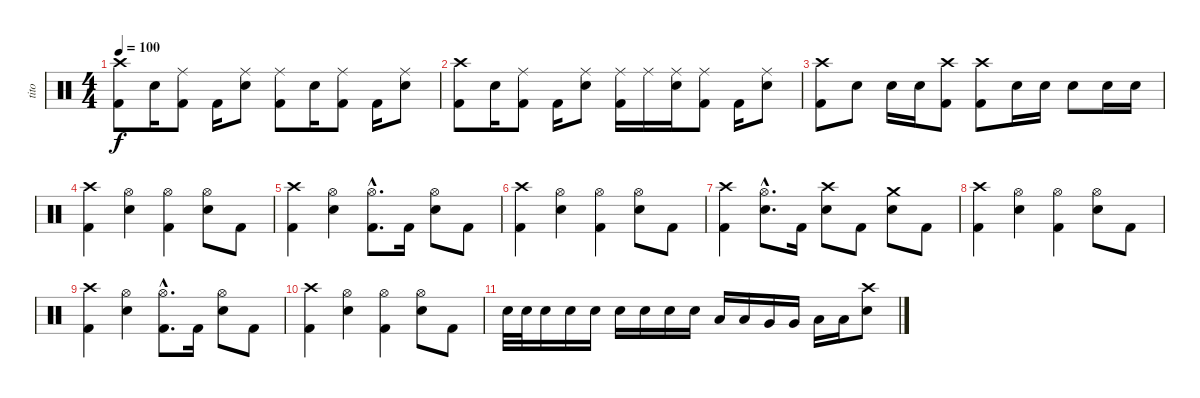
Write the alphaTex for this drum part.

\track ("tito" "tito") {instrument percussion}
\staff {score}
\articulation defaults
\ts (4 4)
\tempo 100
\clef neutral
\ks c
("Crash high (hit)" "Kick (hit) 2").8{dy f} "Snare (hit) 2".16 ("Ride (middle)" "Kick (hit) 2").8 "Kick (hit) 2".16 ("Ride (middle)" "Snare (hit) 2").8 ("Ride (middle)" "Kick (hit) 2").8 "Snare (hit) 2".16 ("Ride (middle)" "Kick (hit) 2").8 "Kick (hit) 2".16 ("Ride (middle)" "Snare (hit) 2").8 |
("Crash high (hit)" "Kick (hit) 2").8 "Snare (hit) 2".16 ("Ride (middle)" "Kick (hit) 2").8 "Kick (hit) 2".16 ("Ride (middle)" "Snare (hit) 2").8 ("Ride (middle)" "Kick (hit) 2").16 "Ride (middle)".16 ("Ride (middle)" "Snare (hit) 2").16 ("Ride (middle)" "Kick (hit) 2").8 "Kick (hit) 2".16 ("Ride (middle)" "Snare (hit) 2").8 |
("Crash high (hit)" "Kick (hit) 2").8 "Snare (hit) 2".8 "Snare (hit) 2".16 "Snare (hit) 2".16 ("Crash high (hit)" "Kick (hit) 2").8 ("Crash high (hit)" "Kick (hit) 2").8 "Snare (hit) 2".16 "Snare (hit) 2".16 "Snare (hit) 2".8 "Snare (hit) 2".16 "Snare (hit) 2".16 |
("Crash high (hit)" "Kick (hit) 2").4 ("Hi-Hat (open)" "Snare (hit) 2").4 ("Hi-Hat (open)" "Kick (hit) 2").4 ("Hi-Hat (open)" "Snare (hit) 2").8 "Kick (hit) 2".8 |
("Crash high (hit)" "Kick (hit) 2").4 ("Hi-Hat (open)" "Snare (hit) 2").4 ("Hi-Hat (open)"{hac} "Kick (hit) 2"{hac}).8{d} "Kick (hit) 2".16 ("Hi-Hat (open)" "Snare (hit) 2").8 "Kick (hit) 2".8 |
("Crash high (hit)" "Kick (hit) 2").4 ("Hi-Hat (open)" "Snare (hit) 2").4 ("Hi-Hat (open)" "Kick (hit) 2").4 ("Hi-Hat (open)" "Snare (hit) 2").8 "Kick (hit) 2".8 |
("Crash high (hit)" "Kick (hit) 2").4 ("Hi-Hat (open)"{hac} "Snare (hit) 2"{hac}).8{d} "Kick (hit) 2".16 ("Crash high (hit)" "Snare (hit) 2").8 "Kick (hit) 2".8 ("Crash medium (hit)" "Snare (hit) 2").8 "Kick (hit) 2".8 |
("Crash high (hit)" "Kick (hit) 2").4 ("Hi-Hat (open)" "Snare (hit) 2").4 ("Hi-Hat (open)" "Kick (hit) 2").4 ("Hi-Hat (open)" "Snare (hit) 2").8 "Kick (hit) 2".8 |
("Crash high (hit)" "Kick (hit) 2").4 ("Hi-Hat (open)" "Snare (hit) 2").4 ("Hi-Hat (open)"{hac} "Kick (hit) 2"{hac}).8{d} "Kick (hit) 2".16 ("Hi-Hat (open)" "Snare (hit) 2").8 "Kick (hit) 2".8 |
("Crash high (hit)" "Kick (hit) 2").4 ("Hi-Hat (open)" "Snare (hit) 2").4 ("Hi-Hat (open)" "Kick (hit) 2").4 ("Hi-Hat (open)" "Snare (hit) 2").8 "Kick (hit) 2".8 |
"Snare (hit) 2".32 "Snare (hit) 2".32 "Snare (hit) 2".16 "Snare (hit) 2".16 "Snare (hit) 2".16 "Snare (hit) 2".16 "Snare (hit) 2".16 "Snare (hit) 2".16 "Snare (hit) 2".16 "Low Tom (hit)".16 "Low Tom (hit)".16 "Very Low Tom (hit)".16 "Very Low Tom (hit)".16 "Low Floor Tom (hit)".16 "Low Floor Tom (hit)".16 ("Crash high (hit)" "Snare (hit) 2").8
